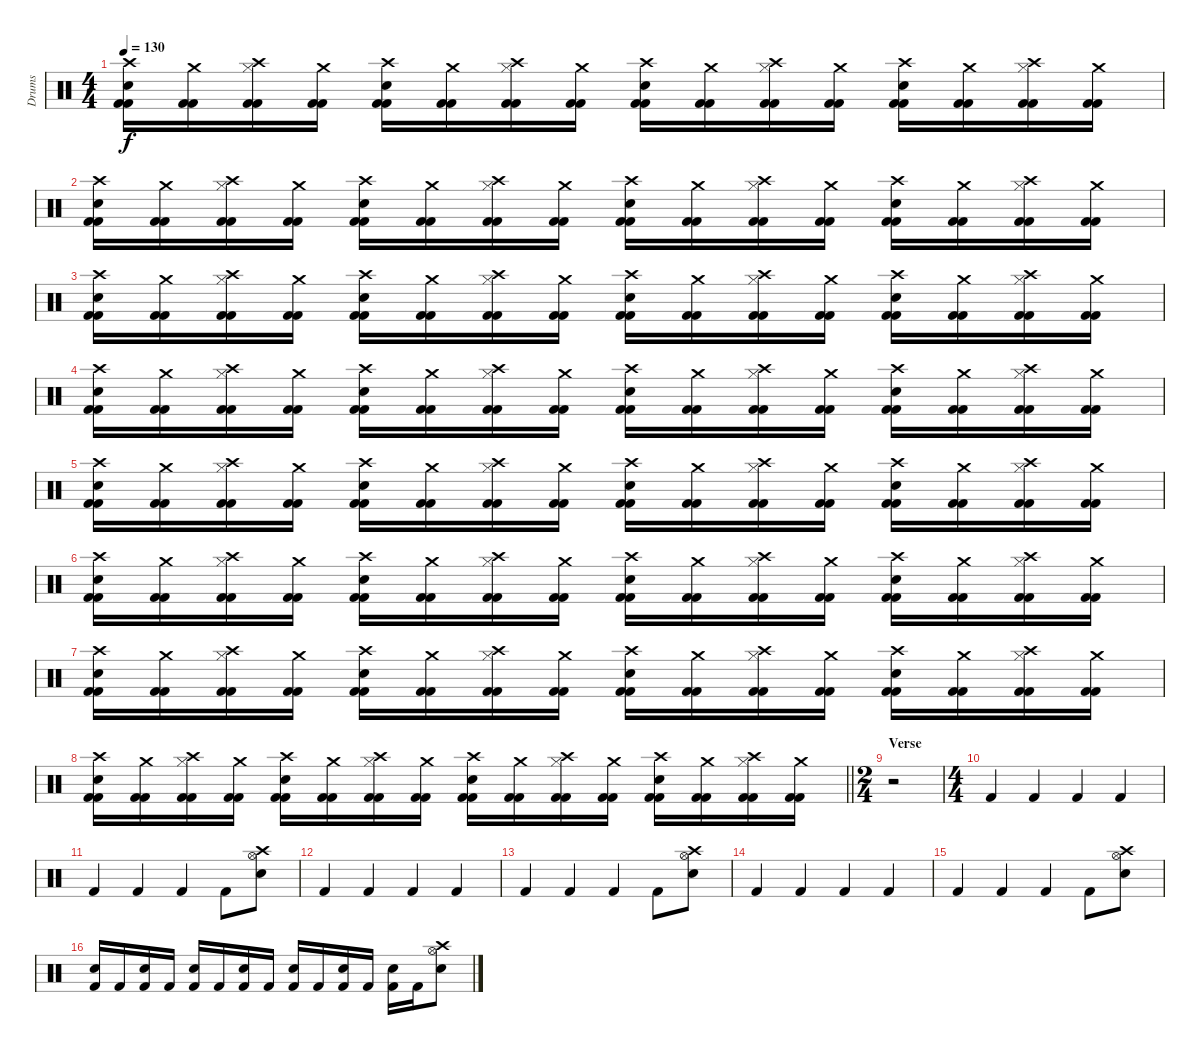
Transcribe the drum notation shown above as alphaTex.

\track ("Drums" "Drums") {instrument percussion}
\staff
\articulation defaults
\ts (4 4)
\tempo 130
\clef neutral
\ks c
("Kick (hit) 2" "Crash high (hit)" "Electric Snare (hit)" "Kick (hit) 2").16{dy f} ("Kick (hit) 2" "Crash medium (hit)" "Kick (hit) 2").16 ("Kick (hit) 2" "Crash high (hit)" "Hi-Hat (closed)" "Kick (hit) 2").16 ("Kick (hit) 2" "Crash medium (hit)" "Kick (hit) 2").16 ("Kick (hit) 2" "Crash high (hit)" "Electric Snare (hit)" "Kick (hit) 2").16 ("Kick (hit) 2" "Crash medium (hit)" "Kick (hit) 2").16 ("Kick (hit) 2" "Crash high (hit)" "Hi-Hat (closed)" "Kick (hit) 2").16 ("Kick (hit) 2" "Crash medium (hit)" "Kick (hit) 2").16 ("Kick (hit) 2" "Crash high (hit)" "Electric Snare (hit)" "Kick (hit) 2").16 ("Kick (hit) 2" "Crash medium (hit)" "Kick (hit) 2").16 ("Kick (hit) 2" "Crash high (hit)" "Hi-Hat (closed)" "Kick (hit) 2").16 ("Kick (hit) 2" "Crash medium (hit)" "Kick (hit) 2").16 ("Kick (hit) 2" "Crash high (hit)" "Electric Snare (hit)" "Kick (hit) 2").16 ("Kick (hit) 2" "Crash medium (hit)" "Kick (hit) 2").16 ("Kick (hit) 2" "Crash high (hit)" "Hi-Hat (closed)" "Kick (hit) 2").16 ("Kick (hit) 2" "Crash medium (hit)" "Kick (hit) 2").16 |
("Kick (hit) 2" "Crash high (hit)" "Electric Snare (hit)" "Kick (hit) 2").16 ("Kick (hit) 2" "Crash medium (hit)" "Kick (hit) 2").16 ("Kick (hit) 2" "Crash high (hit)" "Hi-Hat (closed)" "Kick (hit) 2").16 ("Kick (hit) 2" "Crash medium (hit)" "Kick (hit) 2").16 ("Kick (hit) 2" "Crash high (hit)" "Electric Snare (hit)" "Kick (hit) 2").16 ("Kick (hit) 2" "Crash medium (hit)" "Kick (hit) 2").16 ("Kick (hit) 2" "Crash high (hit)" "Hi-Hat (closed)" "Kick (hit) 2").16 ("Kick (hit) 2" "Crash medium (hit)" "Kick (hit) 2").16 ("Kick (hit) 2" "Crash high (hit)" "Electric Snare (hit)" "Kick (hit) 2").16 ("Kick (hit) 2" "Crash medium (hit)" "Kick (hit) 2").16 ("Kick (hit) 2" "Crash high (hit)" "Hi-Hat (closed)" "Kick (hit) 2").16 ("Kick (hit) 2" "Crash medium (hit)" "Kick (hit) 2").16 ("Kick (hit) 2" "Crash high (hit)" "Electric Snare (hit)" "Kick (hit) 2").16 ("Kick (hit) 2" "Crash medium (hit)" "Kick (hit) 2").16 ("Kick (hit) 2" "Crash high (hit)" "Hi-Hat (closed)" "Kick (hit) 2").16 ("Kick (hit) 2" "Crash medium (hit)" "Kick (hit) 2").16 |
("Kick (hit) 2" "Crash high (hit)" "Electric Snare (hit)" "Kick (hit) 2").16 ("Kick (hit) 2" "Crash medium (hit)" "Kick (hit) 2").16 ("Kick (hit) 2" "Crash high (hit)" "Hi-Hat (closed)" "Kick (hit) 2").16 ("Kick (hit) 2" "Crash medium (hit)" "Kick (hit) 2").16 ("Kick (hit) 2" "Crash high (hit)" "Electric Snare (hit)" "Kick (hit) 2").16 ("Kick (hit) 2" "Crash medium (hit)" "Kick (hit) 2").16 ("Kick (hit) 2" "Crash high (hit)" "Hi-Hat (closed)" "Kick (hit) 2").16 ("Kick (hit) 2" "Crash medium (hit)" "Kick (hit) 2").16 ("Kick (hit) 2" "Crash high (hit)" "Electric Snare (hit)" "Kick (hit) 2").16 ("Kick (hit) 2" "Crash medium (hit)" "Kick (hit) 2").16 ("Kick (hit) 2" "Crash high (hit)" "Hi-Hat (closed)" "Kick (hit) 2").16 ("Kick (hit) 2" "Crash medium (hit)" "Kick (hit) 2").16 ("Kick (hit) 2" "Crash high (hit)" "Electric Snare (hit)" "Kick (hit) 2").16 ("Kick (hit) 2" "Crash medium (hit)" "Kick (hit) 2").16 ("Kick (hit) 2" "Crash high (hit)" "Hi-Hat (closed)" "Kick (hit) 2").16 ("Kick (hit) 2" "Crash medium (hit)" "Kick (hit) 2").16 |
("Kick (hit) 2" "Crash high (hit)" "Electric Snare (hit)" "Kick (hit) 2").16 ("Kick (hit) 2" "Crash medium (hit)" "Kick (hit) 2").16 ("Kick (hit) 2" "Crash high (hit)" "Hi-Hat (closed)" "Kick (hit) 2").16 ("Kick (hit) 2" "Crash medium (hit)" "Kick (hit) 2").16 ("Kick (hit) 2" "Crash high (hit)" "Electric Snare (hit)" "Kick (hit) 2").16 ("Kick (hit) 2" "Crash medium (hit)" "Kick (hit) 2").16 ("Kick (hit) 2" "Crash high (hit)" "Hi-Hat (closed)" "Kick (hit) 2").16 ("Kick (hit) 2" "Crash medium (hit)" "Kick (hit) 2").16 ("Kick (hit) 2" "Crash high (hit)" "Electric Snare (hit)" "Kick (hit) 2").16 ("Kick (hit) 2" "Crash medium (hit)" "Kick (hit) 2").16 ("Kick (hit) 2" "Crash high (hit)" "Hi-Hat (closed)" "Kick (hit) 2").16 ("Kick (hit) 2" "Crash medium (hit)" "Kick (hit) 2").16 ("Kick (hit) 2" "Crash high (hit)" "Electric Snare (hit)" "Kick (hit) 2").16 ("Kick (hit) 2" "Crash medium (hit)" "Kick (hit) 2").16 ("Kick (hit) 2" "Crash high (hit)" "Hi-Hat (closed)" "Kick (hit) 2").16 ("Kick (hit) 2" "Crash medium (hit)" "Kick (hit) 2").16 |
("Kick (hit) 2" "Crash high (hit)" "Electric Snare (hit)" "Kick (hit) 2").16 ("Kick (hit) 2" "Crash medium (hit)" "Kick (hit) 2").16 ("Kick (hit) 2" "Crash high (hit)" "Hi-Hat (closed)" "Kick (hit) 2").16 ("Kick (hit) 2" "Crash medium (hit)" "Kick (hit) 2").16 ("Kick (hit) 2" "Crash high (hit)" "Electric Snare (hit)" "Kick (hit) 2").16 ("Kick (hit) 2" "Crash medium (hit)" "Kick (hit) 2").16 ("Kick (hit) 2" "Crash high (hit)" "Hi-Hat (closed)" "Kick (hit) 2").16 ("Kick (hit) 2" "Crash medium (hit)" "Kick (hit) 2").16 ("Kick (hit) 2" "Crash high (hit)" "Electric Snare (hit)" "Kick (hit) 2").16 ("Kick (hit) 2" "Crash medium (hit)" "Kick (hit) 2").16 ("Kick (hit) 2" "Crash high (hit)" "Hi-Hat (closed)" "Kick (hit) 2").16 ("Kick (hit) 2" "Crash medium (hit)" "Kick (hit) 2").16 ("Kick (hit) 2" "Crash high (hit)" "Electric Snare (hit)" "Kick (hit) 2").16 ("Kick (hit) 2" "Crash medium (hit)" "Kick (hit) 2").16 ("Kick (hit) 2" "Crash high (hit)" "Hi-Hat (closed)" "Kick (hit) 2").16 ("Kick (hit) 2" "Crash medium (hit)" "Kick (hit) 2").16 |
("Kick (hit) 2" "Crash high (hit)" "Electric Snare (hit)" "Kick (hit) 2").16 ("Kick (hit) 2" "Crash medium (hit)" "Kick (hit) 2").16 ("Kick (hit) 2" "Crash high (hit)" "Hi-Hat (closed)" "Kick (hit) 2").16 ("Kick (hit) 2" "Crash medium (hit)" "Kick (hit) 2").16 ("Kick (hit) 2" "Crash high (hit)" "Electric Snare (hit)" "Kick (hit) 2").16 ("Kick (hit) 2" "Crash medium (hit)" "Kick (hit) 2").16 ("Kick (hit) 2" "Crash high (hit)" "Hi-Hat (closed)" "Kick (hit) 2").16 ("Kick (hit) 2" "Crash medium (hit)" "Kick (hit) 2").16 ("Kick (hit) 2" "Crash high (hit)" "Electric Snare (hit)" "Kick (hit) 2").16 ("Kick (hit) 2" "Crash medium (hit)" "Kick (hit) 2").16 ("Kick (hit) 2" "Crash high (hit)" "Hi-Hat (closed)" "Kick (hit) 2").16 ("Kick (hit) 2" "Crash medium (hit)" "Kick (hit) 2").16 ("Kick (hit) 2" "Crash high (hit)" "Electric Snare (hit)" "Kick (hit) 2").16 ("Kick (hit) 2" "Crash medium (hit)" "Kick (hit) 2").16 ("Kick (hit) 2" "Crash high (hit)" "Hi-Hat (closed)" "Kick (hit) 2").16 ("Kick (hit) 2" "Crash medium (hit)" "Kick (hit) 2").16 |
("Kick (hit) 2" "Crash high (hit)" "Electric Snare (hit)" "Kick (hit) 2").16 ("Kick (hit) 2" "Crash medium (hit)" "Kick (hit) 2").16 ("Kick (hit) 2" "Crash high (hit)" "Hi-Hat (closed)" "Kick (hit) 2").16 ("Kick (hit) 2" "Crash medium (hit)" "Kick (hit) 2").16 ("Kick (hit) 2" "Crash high (hit)" "Electric Snare (hit)" "Kick (hit) 2").16 ("Kick (hit) 2" "Crash medium (hit)" "Kick (hit) 2").16 ("Kick (hit) 2" "Crash high (hit)" "Hi-Hat (closed)" "Kick (hit) 2").16 ("Kick (hit) 2" "Crash medium (hit)" "Kick (hit) 2").16 ("Kick (hit) 2" "Crash high (hit)" "Electric Snare (hit)" "Kick (hit) 2").16 ("Kick (hit) 2" "Crash medium (hit)" "Kick (hit) 2").16 ("Kick (hit) 2" "Crash high (hit)" "Hi-Hat (closed)" "Kick (hit) 2").16 ("Kick (hit) 2" "Crash medium (hit)" "Kick (hit) 2").16 ("Kick (hit) 2" "Crash high (hit)" "Electric Snare (hit)" "Kick (hit) 2").16 ("Kick (hit) 2" "Crash medium (hit)" "Kick (hit) 2").16 ("Kick (hit) 2" "Crash high (hit)" "Hi-Hat (closed)" "Kick (hit) 2").16 ("Kick (hit) 2" "Crash medium (hit)" "Kick (hit) 2").16 |
\barLineRight lightlight
("Kick (hit) 2" "Crash high (hit)" "Electric Snare (hit)" "Kick (hit) 2").16 ("Kick (hit) 2" "Crash medium (hit)" "Kick (hit) 2").16 ("Kick (hit) 2" "Crash high (hit)" "Hi-Hat (closed)" "Kick (hit) 2").16 ("Kick (hit) 2" "Crash medium (hit)" "Kick (hit) 2").16 ("Kick (hit) 2" "Crash high (hit)" "Electric Snare (hit)" "Kick (hit) 2").16 ("Kick (hit) 2" "Crash medium (hit)" "Kick (hit) 2").16 ("Kick (hit) 2" "Crash high (hit)" "Hi-Hat (closed)" "Kick (hit) 2").16 ("Kick (hit) 2" "Crash medium (hit)" "Kick (hit) 2").16 ("Kick (hit) 2" "Crash high (hit)" "Electric Snare (hit)" "Kick (hit) 2").16 ("Kick (hit) 2" "Crash medium (hit)" "Kick (hit) 2").16 ("Kick (hit) 2" "Crash high (hit)" "Hi-Hat (closed)" "Kick (hit) 2").16 ("Kick (hit) 2" "Crash medium (hit)" "Kick (hit) 2").16 ("Kick (hit) 2" "Crash high (hit)" "Electric Snare (hit)" "Kick (hit) 2").16 ("Kick (hit) 2" "Crash medium (hit)" "Kick (hit) 2").16 ("Kick (hit) 2" "Crash high (hit)" "Hi-Hat (closed)" "Kick (hit) 2").16 ("Kick (hit) 2" "Crash medium (hit)" "Kick (hit) 2").16 |
\ts (2 4)
\section ("" "Verse")
r.2 |
\ts (4 4)
"Kick (hit) 2".4 "Kick (hit) 2".4 "Kick (hit) 2".4 "Kick (hit) 2".4 |
"Kick (hit) 2".4 "Kick (hit) 2".4 "Kick (hit) 2".4 "Kick (hit) 2".8 ("Crash high (hit)" "Snare (hit) 2" "Hi-Hat (open)").8 |
"Kick (hit) 2".4 "Kick (hit) 2".4 "Kick (hit) 2".4 "Kick (hit) 2".4 |
"Kick (hit) 2".4 "Kick (hit) 2".4 "Kick (hit) 2".4 "Kick (hit) 2".8 ("Crash high (hit)" "Snare (hit) 2" "Hi-Hat (open)").8 |
"Kick (hit) 2".4 "Kick (hit) 2".4 "Kick (hit) 2".4 "Kick (hit) 2".4 |
"Kick (hit) 2".4 "Kick (hit) 2".4 "Kick (hit) 2".4 "Kick (hit) 2".8 ("Crash high (hit)" "Snare (hit) 2" "Hi-Hat (open)").8 |
("Snare (hit) 2" "Kick (hit) 2").16 "Kick (hit) 2".16 ("Snare (hit) 2" "Kick (hit) 2").16 "Kick (hit) 2".16 ("Snare (hit) 2" "Kick (hit) 2").16 "Kick (hit) 2".16 ("Snare (hit) 2" "Kick (hit) 2").16 "Kick (hit) 2".16 ("Snare (hit) 2" "Kick (hit) 2").16 "Kick (hit) 2".16 ("Snare (hit) 2" "Kick (hit) 2").16 "Kick (hit) 2".16 ("Snare (hit) 2" "Kick (hit) 2").16 "Kick (hit) 2".16 ("Crash high (hit)" "Snare (hit) 2" "Hi-Hat (open)").8
